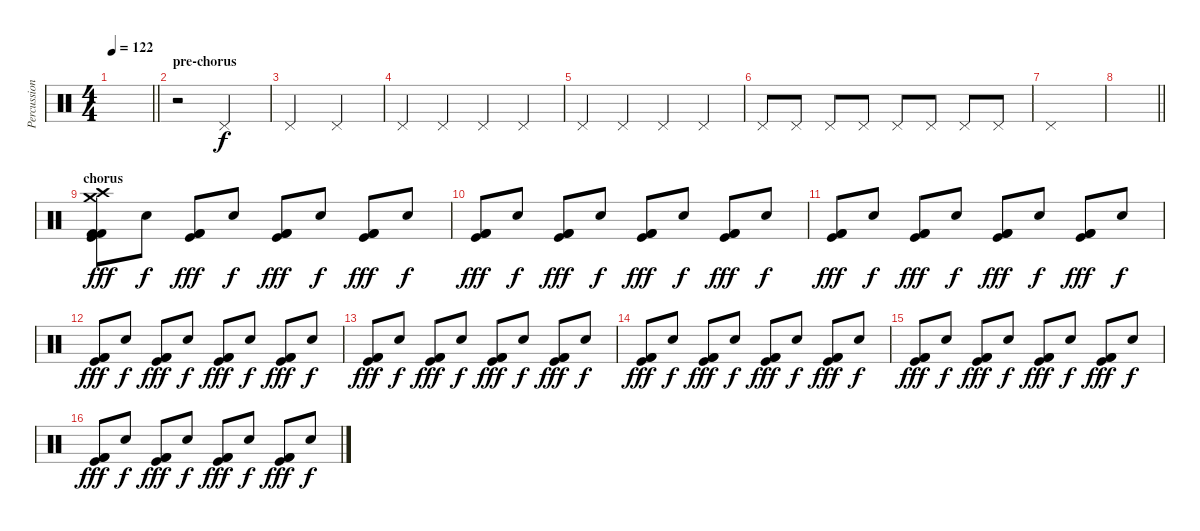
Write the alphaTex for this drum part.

\track ("Percussion" "Percussion") {instrument percussion}
\staff {score}
\articulation defaults
\ts (4 4)
\tempo 122
\clef neutral
\barLineRight lightlight
\ks c
|
\section ("" "pre-chorus")
r.2 "Pedal Hi-Hat (hit)".2 |
"Pedal Hi-Hat (hit)".2 "Pedal Hi-Hat (hit)".2 |
"Pedal Hi-Hat (hit)".4 "Pedal Hi-Hat (hit)".4 "Pedal Hi-Hat (hit)".4 "Pedal Hi-Hat (hit)".4 |
"Pedal Hi-Hat (hit)".4 "Pedal Hi-Hat (hit)".4 "Pedal Hi-Hat (hit)".4 "Pedal Hi-Hat (hit)".4 |
"Pedal Hi-Hat (hit)".8 "Pedal Hi-Hat (hit)".8 "Pedal Hi-Hat (hit)".8 "Pedal Hi-Hat (hit)".8 "Pedal Hi-Hat (hit)".8 "Pedal Hi-Hat (hit)".8 "Pedal Hi-Hat (hit)".8 "Pedal Hi-Hat (hit)".8 |
"Pedal Hi-Hat (hit)".1 |
\barLineRight lightlight
|
\section ("" "chorus")
("Crash high (hit)" "Crash medium (hit)" "Kick (hit) 2" "Kick (hit)" "Kick (hit) 2").8{dy fff} "Hand Clap (hit)".8{dy f} ("Kick (hit) 2" "Kick (hit)" "Kick (hit) 2").8{dy fff} "Hand Clap (hit)".8{dy f} ("Kick (hit) 2" "Kick (hit)" "Kick (hit) 2").8{dy fff} "Hand Clap (hit)".8{dy f} ("Kick (hit) 2" "Kick (hit)" "Kick (hit) 2").8{dy fff} "Hand Clap (hit)".8{dy f} |
("Kick (hit) 2" "Kick (hit)" "Kick (hit) 2").8{dy fff} "Hand Clap (hit)".8{dy f} ("Kick (hit) 2" "Kick (hit)" "Kick (hit) 2").8{dy fff} "Hand Clap (hit)".8{dy f} ("Kick (hit) 2" "Kick (hit)" "Kick (hit) 2").8{dy fff} "Hand Clap (hit)".8{dy f} ("Kick (hit) 2" "Kick (hit)" "Kick (hit) 2").8{dy fff} "Hand Clap (hit)".8{dy f} |
("Kick (hit) 2" "Kick (hit)" "Kick (hit) 2").8{dy fff} "Hand Clap (hit)".8{dy f} ("Kick (hit) 2" "Kick (hit)" "Kick (hit) 2").8{dy fff} "Hand Clap (hit)".8{dy f} ("Kick (hit) 2" "Kick (hit)" "Kick (hit) 2").8{dy fff} "Hand Clap (hit)".8{dy f} ("Kick (hit) 2" "Kick (hit)" "Kick (hit) 2").8{dy fff} "Hand Clap (hit)".8{dy f} |
("Kick (hit) 2" "Kick (hit)" "Kick (hit) 2").8{dy fff} "Hand Clap (hit)".8{dy f} ("Kick (hit) 2" "Kick (hit)" "Kick (hit) 2").8{dy fff} "Hand Clap (hit)".8{dy f} ("Kick (hit) 2" "Kick (hit)" "Kick (hit) 2").8{dy fff} "Hand Clap (hit)".8{dy f} ("Kick (hit) 2" "Kick (hit)" "Kick (hit) 2").8{dy fff} "Hand Clap (hit)".8{dy f} |
("Kick (hit) 2" "Kick (hit)" "Kick (hit) 2").8{dy fff} "Hand Clap (hit)".8{dy f} ("Kick (hit) 2" "Kick (hit)" "Kick (hit) 2").8{dy fff} "Hand Clap (hit)".8{dy f} ("Kick (hit) 2" "Kick (hit)" "Kick (hit) 2").8{dy fff} "Hand Clap (hit)".8{dy f} ("Kick (hit) 2" "Kick (hit)" "Kick (hit) 2").8{dy fff} "Hand Clap (hit)".8{dy f} |
("Kick (hit) 2" "Kick (hit)" "Kick (hit) 2").8{dy fff} "Hand Clap (hit)".8{dy f} ("Kick (hit) 2" "Kick (hit)" "Kick (hit) 2").8{dy fff} "Hand Clap (hit)".8{dy f} ("Kick (hit) 2" "Kick (hit)" "Kick (hit) 2").8{dy fff} "Hand Clap (hit)".8{dy f} ("Kick (hit) 2" "Kick (hit)" "Kick (hit) 2").8{dy fff} "Hand Clap (hit)".8{dy f} |
("Kick (hit) 2" "Kick (hit)" "Kick (hit) 2").8{dy fff} "Hand Clap (hit)".8{dy f} ("Kick (hit) 2" "Kick (hit)" "Kick (hit) 2").8{dy fff} "Hand Clap (hit)".8{dy f} ("Kick (hit) 2" "Kick (hit)" "Kick (hit) 2").8{dy fff} "Hand Clap (hit)".8{dy f} ("Kick (hit) 2" "Kick (hit)" "Kick (hit) 2").8{dy fff} "Hand Clap (hit)".8{dy f} |
("Kick (hit) 2" "Kick (hit)" "Kick (hit) 2").8{dy fff} "Hand Clap (hit)".8{dy f} ("Kick (hit) 2" "Kick (hit)" "Kick (hit) 2").8{dy fff} "Hand Clap (hit)".8{dy f} ("Kick (hit) 2" "Kick (hit)" "Kick (hit) 2").8{dy fff} "Hand Clap (hit)".8{dy f} ("Kick (hit) 2" "Kick (hit)" "Kick (hit) 2").8{dy fff} "Hand Clap (hit)".8{dy f}
